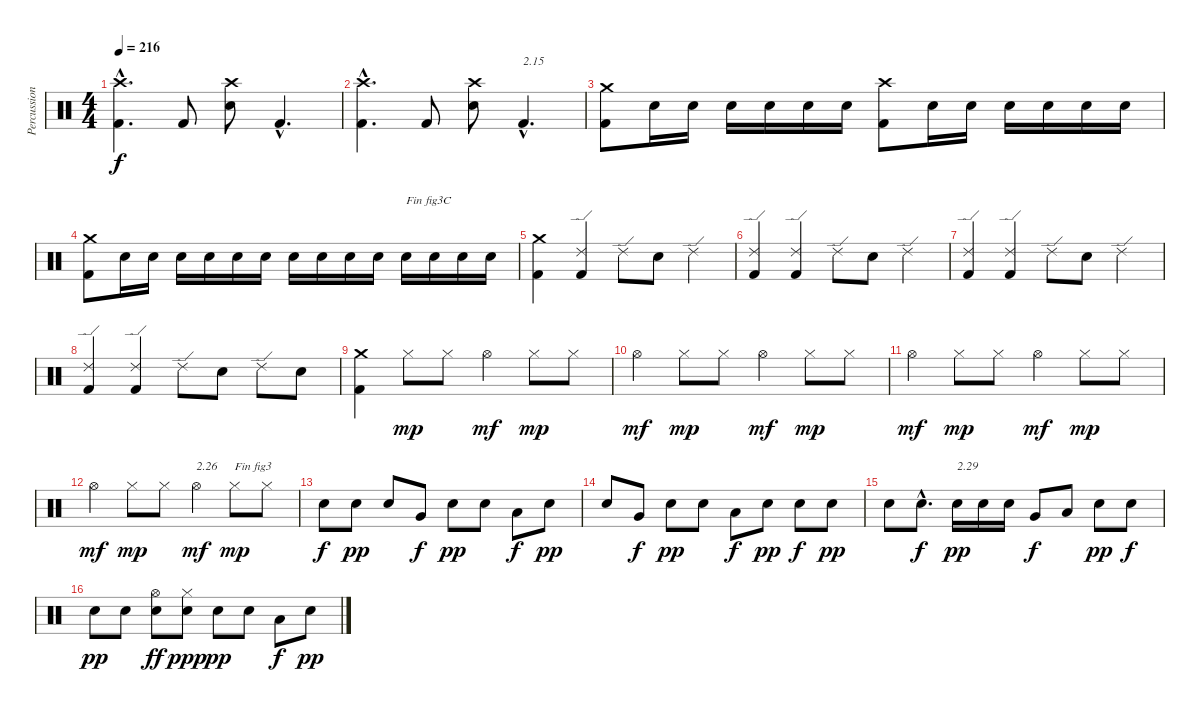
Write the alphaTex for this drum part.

\track ("Percussion" "Percussion") {instrument percussion}
\staff {score}
\articulation defaults
\ts (4 4)
\tempo 216
\clef neutral
\ks c
("Kick (hit) 2"{hac} "Crash high (hit)"{hac}).4{d dy f} "Kick (hit) 2".8 ("Electric Snare (hit)" "Crash high (hit)").8 "Kick (hit) 2"{hac}.4{d} |
("Kick (hit) 2"{hac} "Crash high (hit)"{hac}).4{d} "Kick (hit) 2".8 ("Electric Snare (hit)" "Crash high (hit)").8 "Kick (hit) 2"{hac}.4{d txt "2.15"} |
("Kick (hit) 2" "Crash medium (hit)").8 "Electric Snare (hit)".16 "Electric Snare (hit)".16 "Electric Snare (hit)".16 "Electric Snare (hit)".16 "Electric Snare (hit)".16 "Electric Snare (hit)".16 ("Kick (hit) 2" "Crash high (hit)").8 "Electric Snare (hit)".16 "Electric Snare (hit)".16 "Electric Snare (hit)".16 "Electric Snare (hit)".16 "Electric Snare (hit)".16 "Electric Snare (hit)".16 |
("Kick (hit) 2" "Crash medium (hit)").8 "Electric Snare (hit)".16 "Electric Snare (hit)".16 "Electric Snare (hit)".16 "Electric Snare (hit)".16 "Electric Snare (hit)".16 "Electric Snare (hit)".16 "Electric Snare (hit)".16 "Electric Snare (hit)".16 "Electric Snare (hit)".16 "Electric Snare (hit)".16 "Electric Snare (hit)".16{txt "Fin fig3C"} "Electric Snare (hit)".16 "Electric Snare (hit)".16 "Electric Snare (hit)".16 |
("Kick (hit) 2" "Crash medium (hit)").4 ("Kick (hit) 2" "Ride (edge) 2").4 "Ride (edge) 2".8 "Electric Snare (hit)".8 "Ride (edge) 2".4 |
("Kick (hit) 2" "Ride (edge) 2").4 ("Kick (hit) 2" "Ride (edge) 2").4 "Ride (edge) 2".8 "Electric Snare (hit)".8 "Ride (edge) 2".4 |
("Kick (hit) 2" "Ride (edge) 2").4 ("Kick (hit) 2" "Ride (edge) 2").4 "Ride (edge) 2".8 "Electric Snare (hit)".8 "Ride (edge) 2".4 |
("Kick (hit) 2" "Ride (edge) 2").4 ("Kick (hit) 2" "Ride (edge) 2").4 "Ride (edge) 2".8 "Electric Snare (hit)".8 "Ride (edge) 2".8 "Electric Snare (hit)".8 |
("Kick (hit) 2" "Crash medium (hit)").4 "Hi-Hat (closed)".8{dy mp} "Hi-Hat (closed)".8 "Hi-Hat (open)".4{dy mf} "Hi-Hat (closed)".8{dy mp} "Hi-Hat (closed)".8 |
"Hi-Hat (open)".4{dy mf} "Hi-Hat (closed)".8{dy mp} "Hi-Hat (closed)".8 "Hi-Hat (open)".4{dy mf} "Hi-Hat (closed)".8{dy mp} "Hi-Hat (closed)".8 |
"Hi-Hat (open)".4{dy mf} "Hi-Hat (closed)".8{dy mp} "Hi-Hat (closed)".8 "Hi-Hat (open)".4{dy mf} "Hi-Hat (closed)".8{dy mp} "Hi-Hat (closed)".8 |
"Hi-Hat (open)".4{dy mf} "Hi-Hat (closed)".8{dy mp} "Hi-Hat (closed)".8 "Hi-Hat (open)".4{txt "2.26" dy mf} "Hi-Hat (closed)".8{txt "Fin fig3" dy mp} "Hi-Hat (closed)".8 |
"Electric Snare (hit)".8{dy f} "Electric Snare (hit)".8{dy pp} "Electric Snare (hit)".8 "Very Low Tom (hit)".8{dy f} "Electric Snare (hit)".8{dy pp} "Electric Snare (hit)".8 "Low Floor Tom (hit)".8{dy f} "Electric Snare (hit)".8{dy pp} |
"Electric Snare (hit)".8 "Very Low Tom (hit)".8{dy f} "Electric Snare (hit)".8{dy pp} "Electric Snare (hit)".8 "Low Floor Tom (hit)".8{dy f} "Electric Snare (hit)".8{dy pp} "Electric Snare (hit)".8{dy f} "Electric Snare (hit)".8{dy pp} |
"Electric Snare (hit)".8 "Electric Snare (hit)"{hac}.8{d dy f} "Electric Snare (hit)".16{txt "2.29" dy pp} "Electric Snare (hit)".16 "Electric Snare (hit)".16 "Very Low Tom (hit)".8{dy f} "Low Floor Tom (hit)".8 "Electric Snare (hit)".8{dy pp} "Electric Snare (hit)".8{dy f} |
"Electric Snare (hit)".8{dy pp} "Electric Snare (hit)".8 ("Electric Snare (hit)" "Hi-Hat (open)").8{dy ff} ("Electric Snare (hit)" "Hi-Hat (closed)").8{dy ppp} "Electric Snare (hit)".8{dy pp} "Electric Snare (hit)".8 "Low Floor Tom (hit)".8{dy f} "Electric Snare (hit)".8{dy pp}
